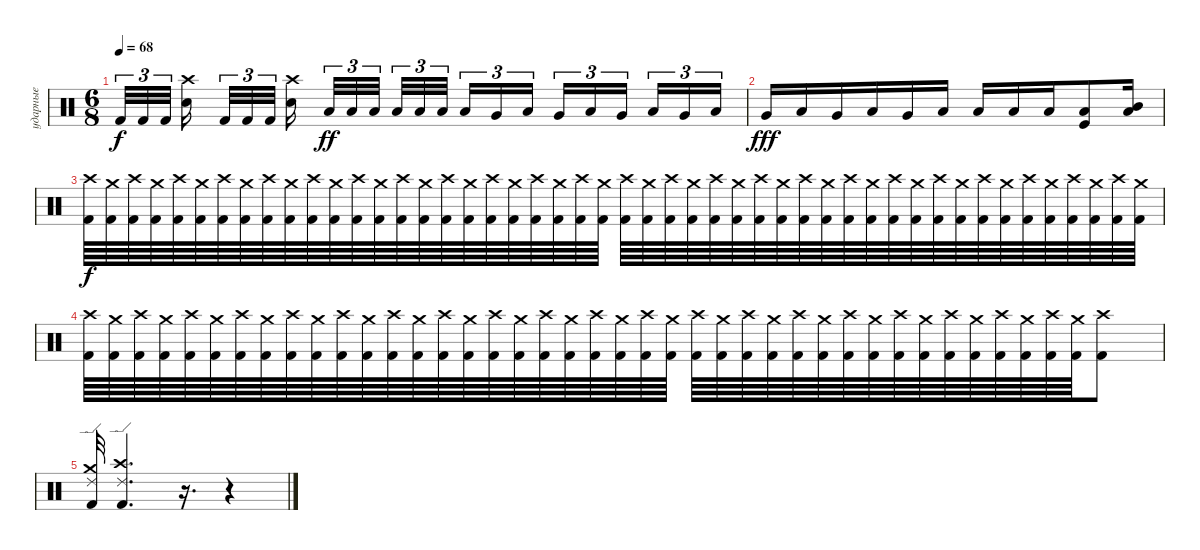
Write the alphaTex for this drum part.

\track ("ударные" "ударные") {instrument percussion}
\staff {score}
\articulation defaults
\ts (6 8)
\tempo 68
\clef neutral
\ks aminor "Kick (hit) 2".32{tu (3 2) dy f} "Kick (hit) 2".32{tu (3 2)} "Kick (hit) 2".32{tu (3 2) beam splitsecondary}
("Crash high (hit)" "Electric Snare (hit)").16{beam splitsecondary} "Kick (hit) 2".32{tu (3 2)} "Kick (hit) 2".32{tu (3 2)} "Kick (hit) 2".32{tu (3 2) beam splitsecondary} ("Crash high (hit)" "Electric Snare (hit)").16{beam splitsecondary} "Low Floor Tom (hit)".32{tu (3 2) dy ff} "Low Floor Tom (hit)".32{tu (3 2)} "Low Floor Tom (hit)".32{tu (3 2) beam splitsecondary} "Low Floor Tom (hit)".32{tu (3 2)} "Low Floor Tom (hit)".32{tu (3 2)} "Low Floor Tom (hit)".32{tu (3 2)} "Low Floor Tom (hit)".16{tu (3 2)} "Very Low Tom (hit)".16{tu (3 2)} "Low Floor Tom (hit)".16{tu (3 2) beam splitsecondary} "Very Low Tom (hit)".16{tu (3 2)} "Low Floor Tom (hit)".16{tu (3 2)} "Very Low Tom (hit)".16{tu (3 2) beam splitsecondary} "Low Floor Tom (hit)".16{tu (3 2)} "Very Low Tom (hit)".16{tu (3 2)} "Low Floor Tom (hit)".16{tu (3 2)} |
"Very Low Tom (hit)".16{dy fff} "Low Floor Tom (hit)".16 "Very Low Tom (hit)".16 "Low Floor Tom (hit)".16 "Very Low Tom (hit)".16 "Low Floor Tom (hit)".16 "Low Floor Tom (hit)".16 "Low Floor Tom (hit)".16 "Low Floor Tom (hit)".16 ("Low Floor Tom (hit)" "Kick (hit)").8 ("Low Tom (hit)" "Mid Tom (hit)").16 |
("Crash high (hit)" "Kick (hit) 2").64{dy f} ("Crash medium (hit)" "Kick (hit) 2").64 ("Crash high (hit)" "Kick (hit) 2").64 ("Crash medium (hit)" "Kick (hit) 2").64 ("Crash high (hit)" "Kick (hit) 2").64 ("Crash medium (hit)" "Kick (hit) 2").64 ("Crash high (hit)" "Kick (hit) 2").64 ("Crash medium (hit)" "Kick (hit) 2").64 ("Crash high (hit)" "Kick (hit) 2").64 ("Crash medium (hit)" "Kick (hit) 2").64 ("Crash high (hit)" "Kick (hit) 2").64 ("Crash medium (hit)" "Kick (hit) 2").64 ("Crash high (hit)" "Kick (hit) 2").64 ("Crash medium (hit)" "Kick (hit) 2").64 ("Crash high (hit)" "Kick (hit) 2").64 ("Crash medium (hit)" "Kick (hit) 2").64 ("Crash high (hit)" "Kick (hit) 2").64 ("Crash medium (hit)" "Kick (hit) 2").64 ("Crash high (hit)" "Kick (hit) 2").64 ("Crash medium (hit)" "Kick (hit) 2").64 ("Crash high (hit)" "Kick (hit) 2").64 ("Crash medium (hit)" "Kick (hit) 2").64 ("Crash high (hit)" "Kick (hit) 2").64 ("Crash medium (hit)" "Kick (hit) 2").64 ("Crash high (hit)" "Kick (hit) 2").64 ("Crash medium (hit)" "Kick (hit) 2").64 ("Crash high (hit)" "Kick (hit) 2").64 ("Crash medium (hit)" "Kick (hit) 2").64 ("Crash high (hit)" "Kick (hit) 2").64 ("Crash medium (hit)" "Kick (hit) 2").64 ("Crash high (hit)" "Kick (hit) 2").64 ("Crash medium (hit)" "Kick (hit) 2").64 ("Crash high (hit)" "Kick (hit) 2").64 ("Crash medium (hit)" "Kick (hit) 2").64 ("Crash high (hit)" "Kick (hit) 2").64 ("Crash medium (hit)" "Kick (hit) 2").64 ("Crash high (hit)" "Kick (hit) 2").64 ("Crash medium (hit)" "Kick (hit) 2").64 ("Crash high (hit)" "Kick (hit) 2").64 ("Crash medium (hit)" "Kick (hit) 2").64 ("Crash high (hit)" "Kick (hit) 2").64 ("Crash medium (hit)" "Kick (hit) 2").64 ("Crash high (hit)" "Kick (hit) 2").64 ("Crash medium (hit)" "Kick (hit) 2").64 ("Crash high (hit)" "Kick (hit) 2").64 ("Crash medium (hit)" "Kick (hit) 2").64 ("Crash high (hit)" "Kick (hit) 2").64 ("Crash medium (hit)" "Kick (hit) 2").64 |
("Crash high (hit)" "Kick (hit) 2").64 ("Crash medium (hit)" "Kick (hit) 2").64 ("Crash high (hit)" "Kick (hit) 2").64 ("Crash medium (hit)" "Kick (hit) 2").64 ("Crash high (hit)" "Kick (hit) 2").64 ("Crash medium (hit)" "Kick (hit) 2").64 ("Crash high (hit)" "Kick (hit) 2").64 ("Crash medium (hit)" "Kick (hit) 2").64 ("Crash high (hit)" "Kick (hit) 2").64 ("Crash medium (hit)" "Kick (hit) 2").64 ("Crash high (hit)" "Kick (hit) 2").64 ("Crash medium (hit)" "Kick (hit) 2").64 ("Crash high (hit)" "Kick (hit) 2").64 ("Crash medium (hit)" "Kick (hit) 2").64 ("Crash high (hit)" "Kick (hit) 2").64 ("Crash medium (hit)" "Kick (hit) 2").64 ("Crash high (hit)" "Kick (hit) 2").64 ("Crash medium (hit)" "Kick (hit) 2").64 ("Crash high (hit)" "Kick (hit) 2").64 ("Crash medium (hit)" "Kick (hit) 2").64 ("Crash high (hit)" "Kick (hit) 2").64 ("Crash medium (hit)" "Kick (hit) 2").64 ("Crash high (hit)" "Kick (hit) 2").64 ("Crash medium (hit)" "Kick (hit) 2").64 ("Crash high (hit)" "Kick (hit) 2").64 ("Crash medium (hit)" "Kick (hit) 2").64 ("Crash high (hit)" "Kick (hit) 2").64 ("Crash medium (hit)" "Kick (hit) 2").64 ("Crash high (hit)" "Kick (hit) 2").64 ("Crash medium (hit)" "Kick (hit) 2").64 ("Crash high (hit)" "Kick (hit) 2").64 ("Crash medium (hit)" "Kick (hit) 2").64 ("Crash high (hit)" "Kick (hit) 2").64 ("Crash medium (hit)" "Kick (hit) 2").64 ("Crash high (hit)" "Kick (hit) 2").64 ("Crash medium (hit)" "Kick (hit) 2").64 ("Crash high (hit)" "Kick (hit) 2").64 ("Crash medium (hit)" "Kick (hit) 2").64 ("Crash high (hit)" "Kick (hit) 2").64 ("Crash medium (hit)" "Kick (hit) 2").64 ("Crash high (hit)" "Kick (hit) 2").8 |
("Ride (edge) 2" "Crash medium (hit)" "Kick (hit) 2").32 ("Ride (edge) 2" "Crash high (hit)" "Kick (hit) 2").4{d} r.16{d} r.4
